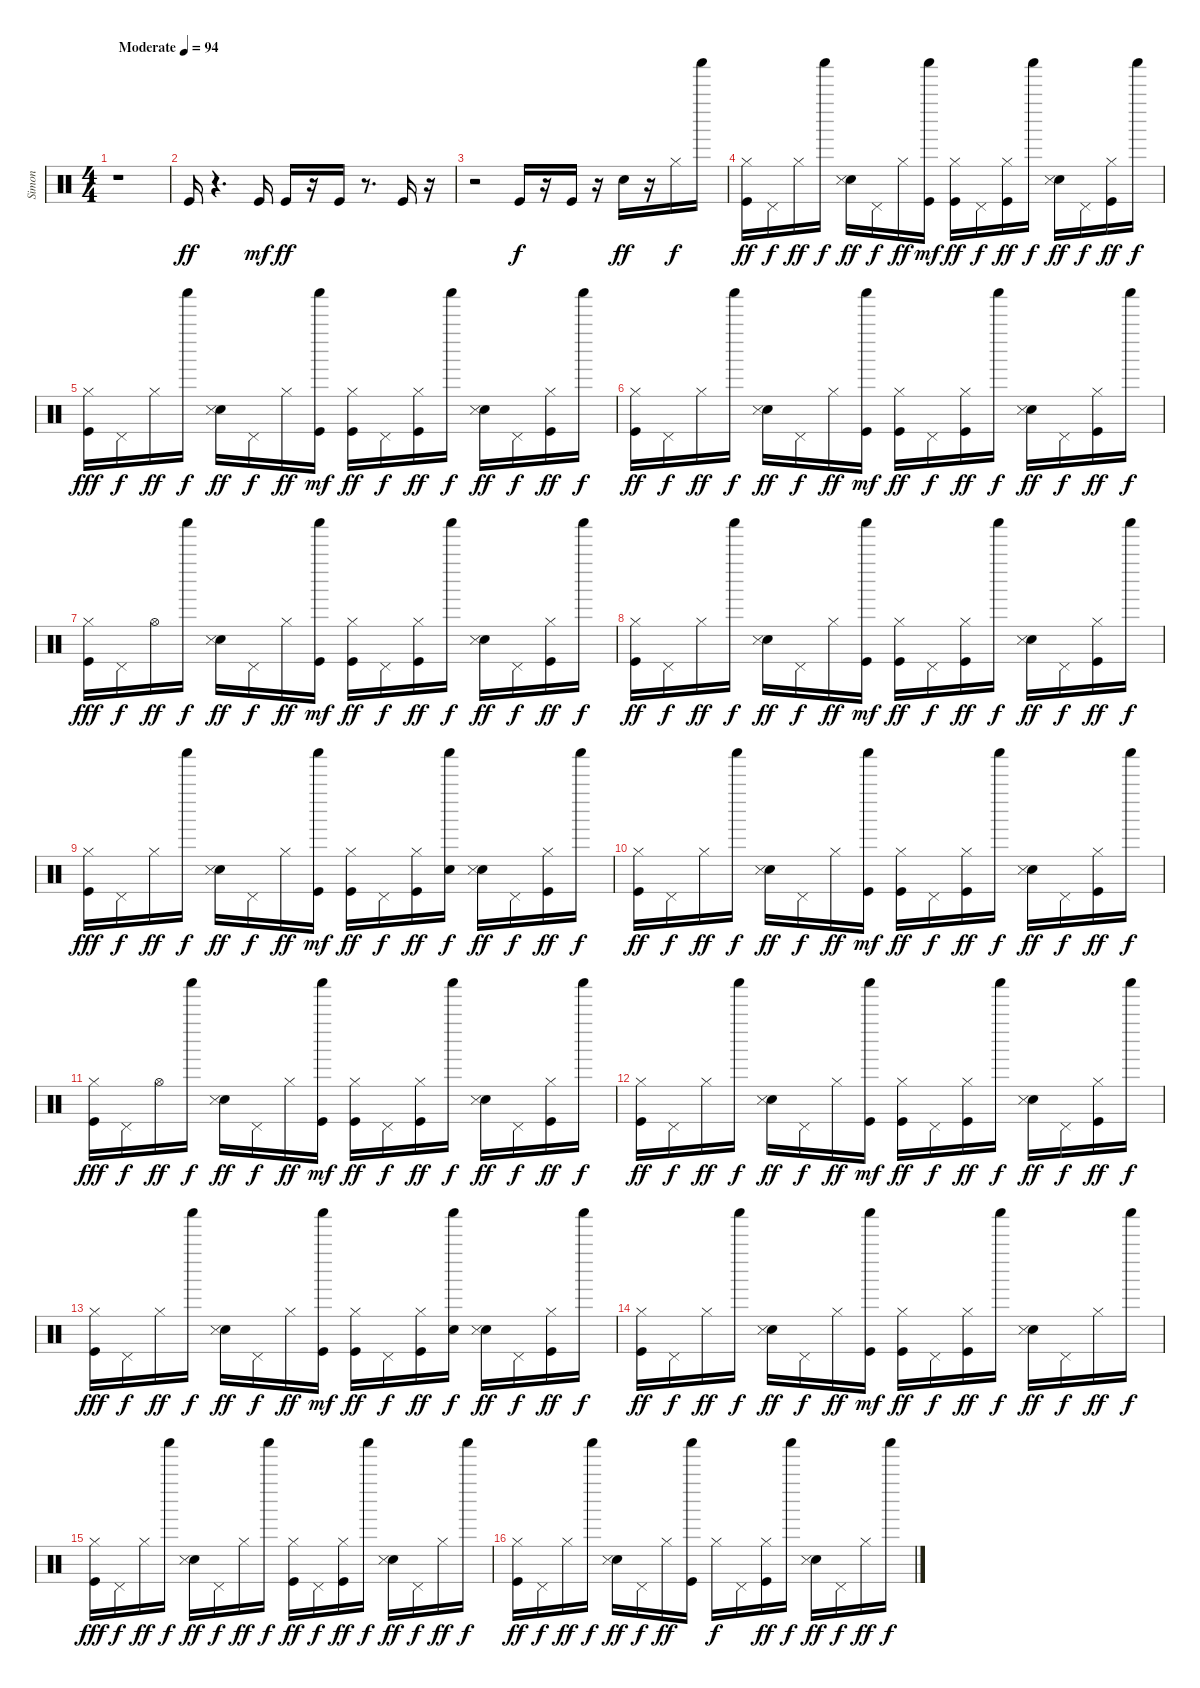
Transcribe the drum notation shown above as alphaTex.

\track ("Simon" "Simon") {instrument percussion}
\staff {score}
\articulation defaults
\ts (4 4)
\tempo (94 "Moderate")
\clef neutral
\ks c
r.1{dy ff} |
"Kick (hit)".16 r.4{d} "Kick (hit)".16{dy mf} "Kick (hit)".16{dy ff} r.16 "Kick (hit)".16 r.8{d} "Kick (hit)".16 r.16 |
r.2 "Kick (hit)".16{dy f} r.16 "Kick (hit)".16 r.16 "Electric Snare (hit)".16{dy ff} r.16 "Hi-Hat (closed)".16{dy f} "Shaker (hit)".16 |
("Kick (hit)" "Hi-Hat (closed)").16{dy ff} "Pedal Hi-Hat (hit)".16{dy f} "Hi-Hat (closed)".16{dy ff} "Shaker (hit)".16{dy f} ("Electric Snare (hit)" "Snare (side stick) 3").16{dy ff} "Pedal Hi-Hat (hit)".16{dy f} "Hi-Hat (closed)".16{dy ff} ("Kick (hit)" "Shaker (hit)").16{dy mf} ("Kick (hit)" "Hi-Hat (closed)").16{dy ff} "Pedal Hi-Hat (hit)".16{dy f} ("Kick (hit)" "Hi-Hat (closed)").16{dy ff} "Shaker (hit)".16{dy f} ("Electric Snare (hit)" "Snare (side stick) 3").16{dy ff} "Pedal Hi-Hat (hit)".16{dy f} ("Kick (hit)" "Hi-Hat (closed)").16{dy ff} "Shaker (hit)".16{dy f} |
("Hi-Hat (closed)" "Kick (hit)").16{dy fff} "Pedal Hi-Hat (hit)".16{dy f} "Hi-Hat (closed)".16{dy ff} "Shaker (hit)".16{dy f} ("Electric Snare (hit)" "Snare (side stick) 3").16{dy ff} "Pedal Hi-Hat (hit)".16{dy f} "Hi-Hat (closed)".16{dy ff} ("Shaker (hit)" "Kick (hit)").16{dy mf} ("Kick (hit)" "Hi-Hat (closed)").16{dy ff} "Pedal Hi-Hat (hit)".16{dy f} ("Kick (hit)" "Hi-Hat (closed)").16{dy ff} "Shaker (hit)".16{dy f} ("Electric Snare (hit)" "Snare (side stick) 3").16{dy ff} "Pedal Hi-Hat (hit)".16{dy f} ("Kick (hit)" "Hi-Hat (closed)").16{dy ff} "Shaker (hit)".16{dy f} |
("Kick (hit)" "Hi-Hat (closed)").16{dy ff} "Pedal Hi-Hat (hit)".16{dy f} "Hi-Hat (closed)".16{dy ff} "Shaker (hit)".16{dy f} ("Electric Snare (hit)" "Snare (side stick) 3").16{dy ff} "Pedal Hi-Hat (hit)".16{dy f} "Hi-Hat (closed)".16{dy ff} ("Kick (hit)" "Shaker (hit)").16{dy mf} ("Kick (hit)" "Hi-Hat (closed)").16{dy ff} "Pedal Hi-Hat (hit)".16{dy f} ("Kick (hit)" "Hi-Hat (closed)").16{dy ff} "Shaker (hit)".16{dy f} ("Electric Snare (hit)" "Snare (side stick) 3").16{dy ff} "Pedal Hi-Hat (hit)".16{dy f} ("Kick (hit)" "Hi-Hat (closed)").16{dy ff} "Shaker (hit)".16{dy f} |
("Hi-Hat (closed)" "Kick (hit)").16{dy fff} "Pedal Hi-Hat (hit)".16{dy f} "Hi-Hat (open)".16{dy ff} "Shaker (hit)".16{dy f} ("Electric Snare (hit)" "Snare (side stick) 3").16{dy ff} "Pedal Hi-Hat (hit)".16{dy f} "Hi-Hat (closed)".16{dy ff} ("Shaker (hit)" "Kick (hit)").16{dy mf} ("Kick (hit)" "Hi-Hat (closed)").16{dy ff} "Pedal Hi-Hat (hit)".16{dy f} ("Kick (hit)" "Hi-Hat (closed)").16{dy ff} "Shaker (hit)".16{dy f} ("Electric Snare (hit)" "Snare (side stick) 3").16{dy ff} "Pedal Hi-Hat (hit)".16{dy f} ("Kick (hit)" "Hi-Hat (closed)").16{dy ff} "Shaker (hit)".16{dy f} |
("Kick (hit)" "Hi-Hat (closed)").16{dy ff} "Pedal Hi-Hat (hit)".16{dy f} "Hi-Hat (closed)".16{dy ff} "Shaker (hit)".16{dy f} ("Electric Snare (hit)" "Snare (side stick) 3").16{dy ff} "Pedal Hi-Hat (hit)".16{dy f} "Hi-Hat (closed)".16{dy ff} ("Kick (hit)" "Shaker (hit)").16{dy mf} ("Kick (hit)" "Hi-Hat (closed)").16{dy ff} "Pedal Hi-Hat (hit)".16{dy f} ("Kick (hit)" "Hi-Hat (closed)").16{dy ff} "Shaker (hit)".16{dy f} ("Electric Snare (hit)" "Snare (side stick) 3").16{dy ff} "Pedal Hi-Hat (hit)".16{dy f} ("Kick (hit)" "Hi-Hat (closed)").16{dy ff} "Shaker (hit)".16{dy f} |
("Hi-Hat (closed)" "Kick (hit)").16{dy fff} "Pedal Hi-Hat (hit)".16{dy f} "Hi-Hat (closed)".16{dy ff} "Shaker (hit)".16{dy f} ("Electric Snare (hit)" "Snare (side stick) 3").16{dy ff} "Pedal Hi-Hat (hit)".16{dy f} "Hi-Hat (closed)".16{dy ff} ("Shaker (hit)" "Kick (hit)").16{dy mf} ("Kick (hit)" "Hi-Hat (closed)").16{dy ff} "Pedal Hi-Hat (hit)".16{dy f} ("Kick (hit)" "Hi-Hat (closed)").16{dy ff} ("Shaker (hit)" "Electric Snare (hit)").16{dy f} ("Electric Snare (hit)" "Snare (side stick) 3").16{dy ff} "Pedal Hi-Hat (hit)".16{dy f} ("Kick (hit)" "Hi-Hat (closed)").16{dy ff} "Shaker (hit)".16{dy f} |
("Kick (hit)" "Hi-Hat (closed)").16{dy ff} "Pedal Hi-Hat (hit)".16{dy f} "Hi-Hat (closed)".16{dy ff} "Shaker (hit)".16{dy f} ("Electric Snare (hit)" "Snare (side stick) 3").16{dy ff} "Pedal Hi-Hat (hit)".16{dy f} "Hi-Hat (closed)".16{dy ff} ("Kick (hit)" "Shaker (hit)").16{dy mf} ("Kick (hit)" "Hi-Hat (closed)").16{dy ff} "Pedal Hi-Hat (hit)".16{dy f} ("Kick (hit)" "Hi-Hat (closed)").16{dy ff} "Shaker (hit)".16{dy f} ("Electric Snare (hit)" "Snare (side stick) 3").16{dy ff} "Pedal Hi-Hat (hit)".16{dy f} ("Kick (hit)" "Hi-Hat (closed)").16{dy ff} "Shaker (hit)".16{dy f} |
("Hi-Hat (closed)" "Kick (hit)").16{dy fff} "Pedal Hi-Hat (hit)".16{dy f} "Hi-Hat (open)".16{dy ff} "Shaker (hit)".16{dy f} ("Electric Snare (hit)" "Snare (side stick) 3").16{dy ff} "Pedal Hi-Hat (hit)".16{dy f} "Hi-Hat (closed)".16{dy ff} ("Shaker (hit)" "Kick (hit)").16{dy mf} ("Kick (hit)" "Hi-Hat (closed)").16{dy ff} "Pedal Hi-Hat (hit)".16{dy f} ("Kick (hit)" "Hi-Hat (closed)").16{dy ff} "Shaker (hit)".16{dy f} ("Electric Snare (hit)" "Snare (side stick) 3").16{dy ff} "Pedal Hi-Hat (hit)".16{dy f} ("Kick (hit)" "Hi-Hat (closed)").16{dy ff} "Shaker (hit)".16{dy f} |
("Kick (hit)" "Hi-Hat (closed)").16{dy ff} "Pedal Hi-Hat (hit)".16{dy f} "Hi-Hat (closed)".16{dy ff} "Shaker (hit)".16{dy f} ("Electric Snare (hit)" "Snare (side stick) 3").16{dy ff} "Pedal Hi-Hat (hit)".16{dy f} "Hi-Hat (closed)".16{dy ff} ("Kick (hit)" "Shaker (hit)").16{dy mf} ("Kick (hit)" "Hi-Hat (closed)").16{dy ff} "Pedal Hi-Hat (hit)".16{dy f} ("Kick (hit)" "Hi-Hat (closed)").16{dy ff} "Shaker (hit)".16{dy f} ("Electric Snare (hit)" "Snare (side stick) 3").16{dy ff} "Pedal Hi-Hat (hit)".16{dy f} ("Kick (hit)" "Hi-Hat (closed)").16{dy ff} "Shaker (hit)".16{dy f} |
("Hi-Hat (closed)" "Kick (hit)").16{dy fff} "Pedal Hi-Hat (hit)".16{dy f} "Hi-Hat (closed)".16{dy ff} "Shaker (hit)".16{dy f} ("Electric Snare (hit)" "Snare (side stick) 3").16{dy ff} "Pedal Hi-Hat (hit)".16{dy f} "Hi-Hat (closed)".16{dy ff} ("Shaker (hit)" "Kick (hit)").16{dy mf} ("Kick (hit)" "Hi-Hat (closed)").16{dy ff} "Pedal Hi-Hat (hit)".16{dy f} ("Kick (hit)" "Hi-Hat (closed)").16{dy ff} ("Shaker (hit)" "Electric Snare (hit)").16{dy f} ("Electric Snare (hit)" "Snare (side stick) 3").16{dy ff} "Pedal Hi-Hat (hit)".16{dy f} ("Kick (hit)" "Hi-Hat (closed)").16{dy ff} "Shaker (hit)".16{dy f} |
("Kick (hit)" "Hi-Hat (closed)").16{dy ff} "Pedal Hi-Hat (hit)".16{dy f} "Hi-Hat (closed)".16{dy ff} "Shaker (hit)".16{dy f} ("Electric Snare (hit)" "Snare (side stick) 3").16{dy ff} "Pedal Hi-Hat (hit)".16{dy f} "Hi-Hat (closed)".16{dy ff} ("Kick (hit)" "Shaker (hit)").16{dy mf} ("Kick (hit)" "Hi-Hat (closed)").16{dy ff} "Pedal Hi-Hat (hit)".16{dy f} ("Kick (hit)" "Hi-Hat (closed)").16{dy ff} "Shaker (hit)".16{dy f} ("Electric Snare (hit)" "Snare (side stick) 3").16{dy ff} "Pedal Hi-Hat (hit)".16{dy f} "Hi-Hat (closed)".16{dy ff} "Shaker (hit)".16{dy f} |
("Hi-Hat (closed)" "Kick (hit)").16{dy fff} "Pedal Hi-Hat (hit)".16{dy f} "Hi-Hat (closed)".16{dy ff} "Shaker (hit)".16{dy f} ("Electric Snare (hit)" "Snare (side stick) 3").16{dy ff} "Pedal Hi-Hat (hit)".16{dy f} "Hi-Hat (closed)".16{dy ff} "Shaker (hit)".16{dy f} ("Kick (hit)" "Hi-Hat (closed)").16{dy ff} "Pedal Hi-Hat (hit)".16{dy f} ("Kick (hit)" "Hi-Hat (closed)").16{dy ff} "Shaker (hit)".16{dy f} ("Electric Snare (hit)" "Snare (side stick) 3").16{dy ff} "Pedal Hi-Hat (hit)".16{dy f} "Hi-Hat (closed)".16{dy ff} "Shaker (hit)".16{dy f} |
("Kick (hit)" "Hi-Hat (closed)").16{dy ff} "Pedal Hi-Hat (hit)".16{dy f} "Hi-Hat (closed)".16{dy ff} "Shaker (hit)".16{dy f} ("Electric Snare (hit)" "Snare (side stick) 3").16{dy ff} "Pedal Hi-Hat (hit)".16{dy f} "Hi-Hat (closed)".16{dy ff} ("Shaker (hit)" "Kick (hit)").16 "Hi-Hat (closed)".16{dy f} "Pedal Hi-Hat (hit)".16 ("Kick (hit)" "Hi-Hat (closed)").16{dy ff} "Shaker (hit)".16{dy f} ("Electric Snare (hit)" "Snare (side stick) 3").16{dy ff} "Pedal Hi-Hat (hit)".16{dy f} "Hi-Hat (closed)".16{dy ff} "Shaker (hit)".16{dy f}
